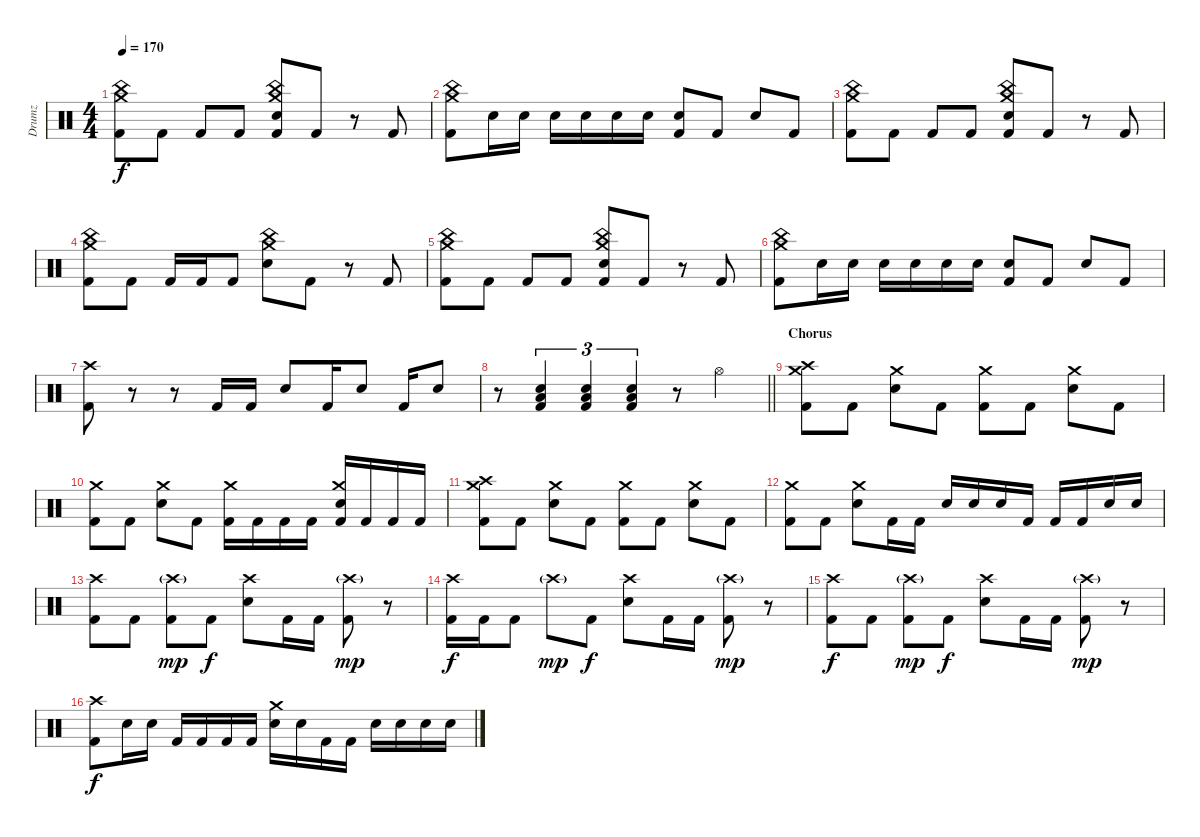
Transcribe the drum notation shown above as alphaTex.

\track ("Drumz" "Drumz") {instrument percussion}
\staff {score}
\articulation defaults
\ts (4 4)
\tempo 170
\clef neutral
\ks c
("Kick (hit) 2" "Crash medium (hit)" "China (hit)").8{dy f} "Kick (hit) 2".8 "Kick (hit) 2".8 "Kick (hit) 2".8 ("Crash medium (hit)" "China (hit)" "Electric Snare (hit)" "Kick (hit) 2").8 "Kick (hit) 2".8 r.8 "Kick (hit) 2".8 |
("China (hit)" "Crash medium (hit)" "Kick (hit) 2").8 "Electric Snare (hit)".16 "Electric Snare (hit)".16 "Electric Snare (hit)".16 "Electric Snare (hit)".16 "Electric Snare (hit)".16 "Electric Snare (hit)".16 ("Electric Snare (hit)" "Kick (hit) 2").8 "Kick (hit) 2".8 "Electric Snare (hit)".8 "Kick (hit) 2".8 |
("Kick (hit) 2" "Crash medium (hit)" "China (hit)").8 "Kick (hit) 2".8 "Kick (hit) 2".8 "Kick (hit) 2".8 ("Crash medium (hit)" "China (hit)" "Electric Snare (hit)" "Kick (hit) 2").8 "Kick (hit) 2".8 r.8 "Kick (hit) 2".8 |
("Kick (hit) 2" "Crash medium (hit)" "China (hit)").8 "Kick (hit) 2".8 "Kick (hit) 2".16 "Kick (hit) 2".16 "Kick (hit) 2".8 ("Crash medium (hit)" "China (hit)" "Electric Snare (hit)").8 "Kick (hit) 2".8 r.8 "Kick (hit) 2".8 |
("Kick (hit) 2" "Crash medium (hit)" "China (hit)").8 "Kick (hit) 2".8 "Kick (hit) 2".8 "Kick (hit) 2".8 ("Crash medium (hit)" "China (hit)" "Electric Snare (hit)" "Kick (hit) 2").8 "Kick (hit) 2".8 r.8 "Kick (hit) 2".8 |
("China (hit)" "Crash medium (hit)" "Kick (hit) 2").8 "Electric Snare (hit)".16 "Electric Snare (hit)".16 "Electric Snare (hit)".16 "Electric Snare (hit)".16 "Electric Snare (hit)".16 "Electric Snare (hit)".16 ("Electric Snare (hit)" "Kick (hit) 2").8 "Kick (hit) 2".8 "Electric Snare (hit)".8 "Kick (hit) 2".8 |
("Crash high (hit)" "Kick (hit) 2").8 r.8 r.8 "Kick (hit) 2".16 "Kick (hit) 2".16 "Electric Snare (hit)".8 "Kick (hit) 2".16 "Electric Snare (hit)".8 "Kick (hit) 2".16 "Electric Snare (hit)".8 |
\barLineRight lightlight
r.8 ("Kick (hit) 2" "Electric Snare (hit)" "Low Floor Tom (hit)").4{tu (3 2)} ("Kick (hit) 2" "Electric Snare (hit)" "Low Floor Tom (hit)").4{tu (3 2)} ("Kick (hit) 2" "Electric Snare (hit)" "Low Floor Tom (hit)").4{tu (3 2)} r.8 "Hi-Hat (open)".4 |
\section ("" "Chorus")
("Crash high (hit)" "Kick (hit) 2" "Crash medium (hit)").8 "Kick (hit) 2".8 ("Electric Snare (hit)" "Crash medium (hit)").8 "Kick (hit) 2".8 ("Kick (hit) 2" "Crash medium (hit)").8 "Kick (hit) 2".8 ("Electric Snare (hit)" "Crash medium (hit)").8 "Kick (hit) 2".8 |
("Kick (hit) 2" "Crash medium (hit)").8 "Kick (hit) 2".8 ("Electric Snare (hit)" "Crash medium (hit)").8 "Kick (hit) 2".8 ("Kick (hit) 2" "Crash medium (hit)").16 "Kick (hit) 2".16 "Kick (hit) 2".16 "Kick (hit) 2".16 ("Electric Snare (hit)" "Crash medium (hit)" "Kick (hit) 2").16 "Kick (hit) 2".16 "Kick (hit) 2".16 "Kick (hit) 2".16 |
("Crash high (hit)" "Kick (hit) 2" "Crash medium (hit)").8 "Kick (hit) 2".8 ("Electric Snare (hit)" "Crash medium (hit)").8 "Kick (hit) 2".8 ("Kick (hit) 2" "Crash medium (hit)").8 "Kick (hit) 2".8 ("Electric Snare (hit)" "Crash medium (hit)").8 "Kick (hit) 2".8 |
("Kick (hit) 2" "Crash medium (hit)").8 "Kick (hit) 2".8 ("Electric Snare (hit)" "Crash medium (hit)").8 "Kick (hit) 2".16 "Kick (hit) 2".16 "Electric Snare (hit)".16 "Electric Snare (hit)".16 "Electric Snare (hit)".16 "Kick (hit) 2".16 "Kick (hit) 2".16 "Kick (hit) 2".16 "Electric Snare (hit)".16 "Electric Snare (hit)".16 |
("Kick (hit) 2" "Crash high (hit)").8 "Kick (hit) 2".8 ("Kick (hit) 2" "Crash high (hit)"{g}).8{dy mp} "Kick (hit) 2".8{dy f} ("Electric Snare (hit)" "Crash high (hit)").8 "Kick (hit) 2".16 "Kick (hit) 2".16 ("Kick (hit) 2" "Crash high (hit)"{g}).8{dy mp} r.8 |
("Crash high (hit)" "Kick (hit) 2").16{dy f} "Kick (hit) 2".16 "Kick (hit) 2".8 "Crash high (hit)"{g}.8{dy mp} "Kick (hit) 2".8{dy f} ("Crash high (hit)" "Electric Snare (hit)").8 "Kick (hit) 2".16 "Kick (hit) 2".16 ("Kick (hit) 2" "Crash high (hit)"{g}).8{dy mp} r.8 |
("Kick (hit) 2" "Crash high (hit)").8{dy f} "Kick (hit) 2".8 ("Kick (hit) 2" "Crash high (hit)"{g}).8{dy mp} "Kick (hit) 2".8{dy f} ("Electric Snare (hit)" "Crash high (hit)").8 "Kick (hit) 2".16 "Kick (hit) 2".16 ("Kick (hit) 2" "Crash high (hit)"{g}).8{dy mp} r.8 |
("Crash high (hit)" "Kick (hit) 2").8{dy f} "Electric Snare (hit)".16 "Electric Snare (hit)".16 "Kick (hit) 2".16 "Kick (hit) 2".16 "Kick (hit) 2".16 "Kick (hit) 2".16 ("Electric Snare (hit)" "Crash medium (hit)").16 "Electric Snare (hit)".16 "Kick (hit) 2".16 "Kick (hit) 2".16 "Electric Snare (hit)".16 "Electric Snare (hit)".16 "Electric Snare (hit)".16 "Electric Snare (hit)".16
